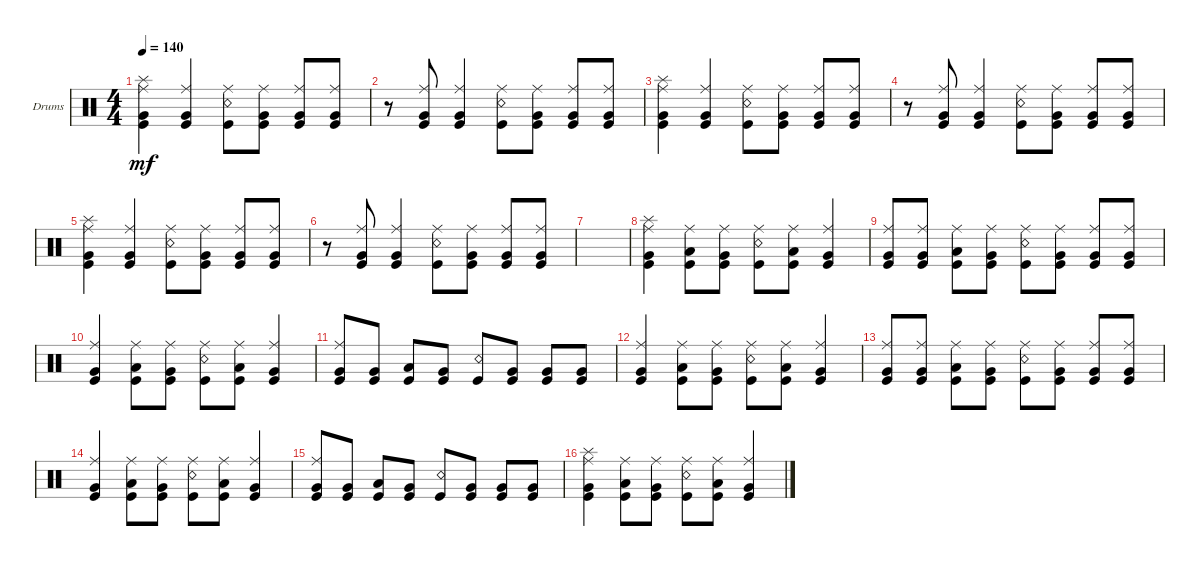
\defaultSystemsLayout 4
\bracketExtendMode groupsimilarinstruments
\firstSystemTrackNameOrientation horizontal
\otherSystemsTrackNameOrientation horizontal
\track ("Drumkit" "Drums") {instrument percussion}
\staff {score}
\articulation defaults
\ts (4 4)
\tempo 140
\clef neutral
\ks c
("Splash (hit)" "Very Low Tom (hit)" "Ride (middle)" "Kick (hit)").4{dy mf} ("Very Low Tom (hit)" "Ride (middle)" "Kick (hit)").4 ("Snare (rim shot)" "Ride (middle)" "Kick (hit)").8 ("Very Low Tom (hit)" "Ride (middle)" "Kick (hit)").8 ("Very Low Tom (hit)" "Ride (middle)" "Kick (hit)").8 ("Very Low Tom (hit)" "Ride (middle)" "Kick (hit)").8 |
r.8 ("Very Low Tom (hit)" "Kick (hit)" "Ride (middle)").8 ("Very Low Tom (hit)" "Kick (hit)" "Ride (middle)").4 ("Snare (rim shot)" "Kick (hit)" "Ride (middle)").8 ("Very Low Tom (hit)" "Kick (hit)" "Ride (middle)").8 ("Very Low Tom (hit)" "Kick (hit)" "Ride (middle)").8 ("Very Low Tom (hit)" "Kick (hit)" "Ride (middle)").8 |
("Splash (hit)" "Very Low Tom (hit)" "Ride (middle)" "Kick (hit)").4 ("Very Low Tom (hit)" "Ride (middle)" "Kick (hit)").4 ("Snare (rim shot)" "Ride (middle)" "Kick (hit)").8 ("Very Low Tom (hit)" "Ride (middle)" "Kick (hit)").8 ("Very Low Tom (hit)" "Ride (middle)" "Kick (hit)").8 ("Very Low Tom (hit)" "Ride (middle)" "Kick (hit)").8 |
r.8 ("Very Low Tom (hit)" "Kick (hit)" "Ride (middle)").8 ("Very Low Tom (hit)" "Kick (hit)" "Ride (middle)").4 ("Snare (rim shot)" "Kick (hit)" "Ride (middle)").8 ("Very Low Tom (hit)" "Kick (hit)" "Ride (middle)").8 ("Very Low Tom (hit)" "Kick (hit)" "Ride (middle)").8 ("Very Low Tom (hit)" "Kick (hit)" "Ride (middle)").8 |
("Splash (hit)" "Very Low Tom (hit)" "Ride (middle)" "Kick (hit)").4 ("Very Low Tom (hit)" "Ride (middle)" "Kick (hit)").4 ("Snare (rim shot)" "Ride (middle)" "Kick (hit)").8 ("Very Low Tom (hit)" "Ride (middle)" "Kick (hit)").8 ("Very Low Tom (hit)" "Ride (middle)" "Kick (hit)").8 ("Very Low Tom (hit)" "Ride (middle)" "Kick (hit)").8 |
r.8 ("Very Low Tom (hit)" "Kick (hit)" "Ride (middle)").8 ("Very Low Tom (hit)" "Kick (hit)" "Ride (middle)").4 ("Snare (rim shot)" "Kick (hit)" "Ride (middle)").8 ("Very Low Tom (hit)" "Kick (hit)" "Ride (middle)").8 ("Very Low Tom (hit)" "Kick (hit)" "Ride (middle)").8 ("Very Low Tom (hit)" "Kick (hit)" "Ride (middle)").8 |
|
("Very Low Tom (hit)" "Kick (hit)" "Ride (middle)" "Splash (hit)").4 ("Low Tom (hit)" "Kick (hit)" "Ride (middle)").8 ("Very Low Tom (hit)" "Kick (hit)" "Ride (middle)").8 ("Snare (rim shot)" "Kick (hit)" "Ride (middle)").8 ("Low Tom (hit)" "Kick (hit)" "Ride (middle)").8 ("Very Low Tom (hit)" "Kick (hit)" "Ride (middle)").4 |
("Very Low Tom (hit)" "Kick (hit)" "Ride (middle)").8 ("Very Low Tom (hit)" "Kick (hit)" "Ride (middle)").8 ("Low Tom (hit)" "Kick (hit)" "Ride (middle)").8 ("Very Low Tom (hit)" "Kick (hit)" "Ride (middle)").8 ("Snare (rim shot)" "Kick (hit)" "Ride (middle)").8 ("Very Low Tom (hit)" "Kick (hit)" "Ride (middle)").8 ("Very Low Tom (hit)" "Kick (hit)" "Ride (middle)").8 ("Very Low Tom (hit)" "Kick (hit)" "Ride (middle)").8 |
("Very Low Tom (hit)" "Kick (hit)" "Ride (middle)").4 ("Low Tom (hit)" "Kick (hit)" "Ride (middle)").8 ("Very Low Tom (hit)" "Kick (hit)" "Ride (middle)").8 ("Snare (rim shot)" "Kick (hit)" "Ride (middle)").8 ("Low Tom (hit)" "Kick (hit)" "Ride (middle)").8 ("Very Low Tom (hit)" "Kick (hit)" "Ride (middle)").4 |
("Very Low Tom (hit)" "Kick (hit)" "Ride (middle)").8 ("Very Low Tom (hit)" "Kick (hit)").8 ("Low Tom (hit)" "Kick (hit)").8 ("Very Low Tom (hit)" "Kick (hit)").8 ("Snare (rim shot)" "Kick (hit)").8 ("Very Low Tom (hit)" "Kick (hit)").8 ("Very Low Tom (hit)" "Kick (hit)").8 ("Very Low Tom (hit)" "Kick (hit)").8 |
("Very Low Tom (hit)" "Kick (hit)" "Ride (middle)").4 ("Low Tom (hit)" "Kick (hit)" "Ride (middle)").8 ("Very Low Tom (hit)" "Kick (hit)" "Ride (middle)").8 ("Snare (rim shot)" "Kick (hit)" "Ride (middle)").8 ("Low Tom (hit)" "Kick (hit)" "Ride (middle)").8 ("Very Low Tom (hit)" "Kick (hit)" "Ride (middle)").4 |
("Very Low Tom (hit)" "Kick (hit)" "Ride (middle)").8 ("Very Low Tom (hit)" "Kick (hit)" "Ride (middle)").8 ("Low Tom (hit)" "Kick (hit)" "Ride (middle)").8 ("Very Low Tom (hit)" "Kick (hit)" "Ride (middle)").8 ("Snare (rim shot)" "Kick (hit)" "Ride (middle)").8 ("Very Low Tom (hit)" "Kick (hit)" "Ride (middle)").8 ("Very Low Tom (hit)" "Kick (hit)" "Ride (middle)").8 ("Very Low Tom (hit)" "Kick (hit)" "Ride (middle)").8 |
("Very Low Tom (hit)" "Kick (hit)" "Ride (middle)").4 ("Low Tom (hit)" "Kick (hit)" "Ride (middle)").8 ("Very Low Tom (hit)" "Kick (hit)" "Ride (middle)").8 ("Snare (rim shot)" "Kick (hit)" "Ride (middle)").8 ("Low Tom (hit)" "Kick (hit)" "Ride (middle)").8 ("Very Low Tom (hit)" "Kick (hit)" "Ride (middle)").4 |
("Very Low Tom (hit)" "Kick (hit)" "Ride (middle)").8 ("Very Low Tom (hit)" "Kick (hit)").8 ("Low Tom (hit)" "Kick (hit)").8 ("Very Low Tom (hit)" "Kick (hit)").8 ("Snare (rim shot)" "Kick (hit)").8 ("Very Low Tom (hit)" "Kick (hit)").8 ("Very Low Tom (hit)" "Kick (hit)").8 ("Very Low Tom (hit)" "Kick (hit)").8 |
("Very Low Tom (hit)" "Kick (hit)" "Ride (middle)" "Splash (hit)").4 ("Low Tom (hit)" "Kick (hit)" "Ride (middle)").8 ("Very Low Tom (hit)" "Kick (hit)" "Ride (middle)").8 ("Snare (rim shot)" "Kick (hit)" "Ride (middle)").8 ("Low Tom (hit)" "Kick (hit)" "Ride (middle)").8 ("Very Low Tom (hit)" "Kick (hit)" "Ride (middle)").4
